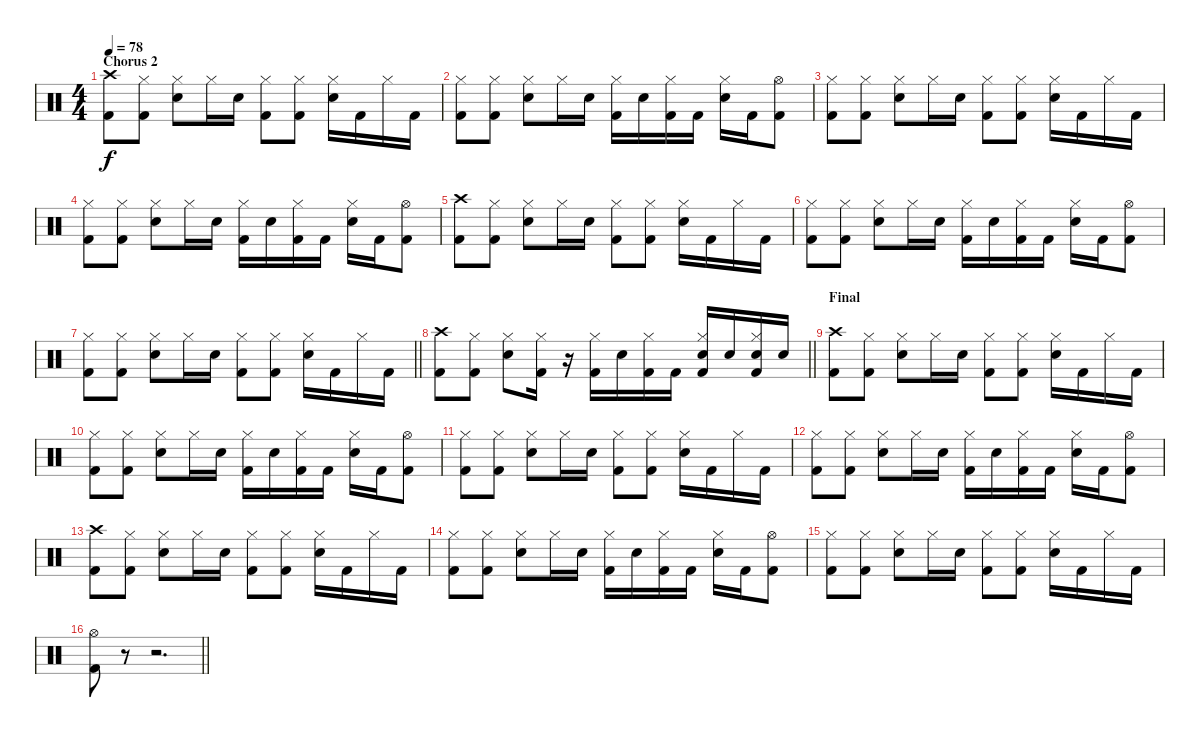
\track "" {instrument percussion}
\staff {score}
\articulation defaults
\ts (4 4)
\section ("" "Chorus 2")
\tempo 78
\clef neutral
\ks c
("Crash high (hit)" "Kick (hit) 2").8{dy f} ("Hi-Hat (closed)" "Kick (hit) 2").8 ("Hi-Hat (closed)" "Snare (hit) 2").8 "Hi-Hat (closed)".16 "Snare (hit) 2".16 ("Hi-Hat (closed)" "Kick (hit) 2").8 ("Hi-Hat (closed)" "Kick (hit) 2").8 ("Hi-Hat (closed)" "Snare (hit) 2").16 "Kick (hit) 2".16 "Hi-Hat (closed)".16 "Kick (hit) 2".16 |
("Hi-Hat (closed)" "Kick (hit) 2").8 ("Hi-Hat (closed)" "Kick (hit) 2").8 ("Hi-Hat (closed)" "Snare (hit) 2").8 "Hi-Hat (closed)".16 "Snare (hit) 2".16 ("Hi-Hat (closed)" "Kick (hit) 2").16 "Snare (hit) 2".16 ("Hi-Hat (closed)" "Kick (hit) 2").16 "Kick (hit) 2".16 ("Hi-Hat (closed)" "Snare (hit) 2").16 "Kick (hit) 2".16 ("Hi-Hat (open)" "Kick (hit) 2").8 |
("Hi-Hat (closed)" "Kick (hit) 2").8 ("Hi-Hat (closed)" "Kick (hit) 2").8 ("Hi-Hat (closed)" "Snare (hit) 2").8 "Hi-Hat (closed)".16 "Snare (hit) 2".16 ("Hi-Hat (closed)" "Kick (hit) 2").8 ("Hi-Hat (closed)" "Kick (hit) 2").8 ("Hi-Hat (closed)" "Snare (hit) 2").16 "Kick (hit) 2".16 "Hi-Hat (closed)".16 "Kick (hit) 2".16 |
("Hi-Hat (closed)" "Kick (hit) 2").8 ("Hi-Hat (closed)" "Kick (hit) 2").8 ("Hi-Hat (closed)" "Snare (hit) 2").8 "Hi-Hat (closed)".16 "Snare (hit) 2".16 ("Hi-Hat (closed)" "Kick (hit) 2").16 "Snare (hit) 2".16 ("Hi-Hat (closed)" "Kick (hit) 2").16 "Kick (hit) 2".16 ("Hi-Hat (closed)" "Snare (hit) 2").16 "Kick (hit) 2".16 ("Hi-Hat (open)" "Kick (hit) 2").8 |
("Crash high (hit)" "Kick (hit) 2").8 ("Hi-Hat (closed)" "Kick (hit) 2").8 ("Hi-Hat (closed)" "Snare (hit) 2").8 "Hi-Hat (closed)".16 "Snare (hit) 2".16 ("Hi-Hat (closed)" "Kick (hit) 2").8 ("Hi-Hat (closed)" "Kick (hit) 2").8 ("Hi-Hat (closed)" "Snare (hit) 2").16 "Kick (hit) 2".16 "Hi-Hat (closed)".16 "Kick (hit) 2".16 |
("Hi-Hat (closed)" "Kick (hit) 2").8 ("Hi-Hat (closed)" "Kick (hit) 2").8 ("Hi-Hat (closed)" "Snare (hit) 2").8 "Hi-Hat (closed)".16 "Snare (hit) 2".16 ("Hi-Hat (closed)" "Kick (hit) 2").16 "Snare (hit) 2".16 ("Hi-Hat (closed)" "Kick (hit) 2").16 "Kick (hit) 2".16 ("Hi-Hat (closed)" "Snare (hit) 2").16 "Kick (hit) 2".16 ("Hi-Hat (open)" "Kick (hit) 2").8 |
\barLineRight lightlight
("Hi-Hat (closed)" "Kick (hit) 2").8 ("Hi-Hat (closed)" "Kick (hit) 2").8 ("Hi-Hat (closed)" "Snare (hit) 2").8 "Hi-Hat (closed)".16 "Snare (hit) 2".16 ("Hi-Hat (closed)" "Kick (hit) 2").8 ("Hi-Hat (closed)" "Kick (hit) 2").8 ("Hi-Hat (closed)" "Snare (hit) 2").16 "Kick (hit) 2".16 "Hi-Hat (closed)".16 "Kick (hit) 2".16 |
\barLineRight lightlight
("Crash high (hit)" "Kick (hit) 2").8 ("Hi-Hat (closed)" "Kick (hit) 2").8 ("Hi-Hat (closed)" "Snare (hit) 2").8 ("Hi-Hat (closed)" "Kick (hit) 2").16 r.16 ("Hi-Hat (closed)" "Kick (hit) 2").16 "Snare (hit) 2".16 ("Hi-Hat (closed)" "Kick (hit) 2").16 "Kick (hit) 2".16 ("Hi-Hat (closed)" "Snare (hit) 2" "Kick (hit) 2").16 "Snare (hit) 2".16 ("Hi-Hat (closed)" "Snare (hit) 2" "Kick (hit) 2").16 "Snare (hit) 2".16 |
\section ("" "Final")
("Crash high (hit)" "Kick (hit) 2").8 ("Hi-Hat (closed)" "Kick (hit) 2").8 ("Hi-Hat (closed)" "Snare (hit) 2").8 "Hi-Hat (closed)".16 "Snare (hit) 2".16 ("Hi-Hat (closed)" "Kick (hit) 2").8 ("Hi-Hat (closed)" "Kick (hit) 2").8 ("Hi-Hat (closed)" "Snare (hit) 2").16 "Kick (hit) 2".16 "Hi-Hat (closed)".16 "Kick (hit) 2".16 |
("Hi-Hat (closed)" "Kick (hit) 2").8 ("Hi-Hat (closed)" "Kick (hit) 2").8 ("Hi-Hat (closed)" "Snare (hit) 2").8 "Hi-Hat (closed)".16 "Snare (hit) 2".16 ("Hi-Hat (closed)" "Kick (hit) 2").16 "Snare (hit) 2".16 ("Hi-Hat (closed)" "Kick (hit) 2").16 "Kick (hit) 2".16 ("Hi-Hat (closed)" "Snare (hit) 2").16 "Kick (hit) 2".16 ("Hi-Hat (open)" "Kick (hit) 2").8 |
("Hi-Hat (closed)" "Kick (hit) 2").8 ("Hi-Hat (closed)" "Kick (hit) 2").8 ("Hi-Hat (closed)" "Snare (hit) 2").8 "Hi-Hat (closed)".16 "Snare (hit) 2".16 ("Hi-Hat (closed)" "Kick (hit) 2").8 ("Hi-Hat (closed)" "Kick (hit) 2").8 ("Hi-Hat (closed)" "Snare (hit) 2").16 "Kick (hit) 2".16 "Hi-Hat (closed)".16 "Kick (hit) 2".16 |
("Hi-Hat (closed)" "Kick (hit) 2").8 ("Hi-Hat (closed)" "Kick (hit) 2").8 ("Hi-Hat (closed)" "Snare (hit) 2").8 "Hi-Hat (closed)".16 "Snare (hit) 2".16 ("Hi-Hat (closed)" "Kick (hit) 2").16 "Snare (hit) 2".16 ("Hi-Hat (closed)" "Kick (hit) 2").16 "Kick (hit) 2".16 ("Hi-Hat (closed)" "Snare (hit) 2").16 "Kick (hit) 2".16 ("Hi-Hat (open)" "Kick (hit) 2").8 |
("Crash high (hit)" "Kick (hit) 2").8 ("Hi-Hat (closed)" "Kick (hit) 2").8{txt ""} ("Hi-Hat (closed)" "Snare (hit) 2").8 "Hi-Hat (closed)".16 "Snare (hit) 2".16 ("Hi-Hat (closed)" "Kick (hit) 2").8 ("Hi-Hat (closed)" "Kick (hit) 2").8 ("Hi-Hat (closed)" "Snare (hit) 2").16 "Kick (hit) 2".16 "Hi-Hat (closed)".16 "Kick (hit) 2".16 |
("Hi-Hat (closed)" "Kick (hit) 2").8 ("Hi-Hat (closed)" "Kick (hit) 2").8 ("Hi-Hat (closed)" "Snare (hit) 2").8 "Hi-Hat (closed)".16 "Snare (hit) 2".16 ("Hi-Hat (closed)" "Kick (hit) 2").16 "Snare (hit) 2".16 ("Hi-Hat (closed)" "Kick (hit) 2").16 "Kick (hit) 2".16 ("Hi-Hat (closed)" "Snare (hit) 2").16 "Kick (hit) 2".16 ("Hi-Hat (open)" "Kick (hit) 2").8 |
("Hi-Hat (closed)" "Kick (hit) 2").8 ("Hi-Hat (closed)" "Kick (hit) 2").8 ("Hi-Hat (closed)" "Snare (hit) 2").8 "Hi-Hat (closed)".16 "Snare (hit) 2".16 ("Hi-Hat (closed)" "Kick (hit) 2").8 ("Hi-Hat (closed)" "Kick (hit) 2").8 ("Hi-Hat (closed)" "Snare (hit) 2").16 "Kick (hit) 2".16 "Hi-Hat (closed)".16 "Kick (hit) 2".16 |
\barLineRight lightlight
("Hi-Hat (open)" "Kick (hit) 2").8 r.8 r.2{d}
